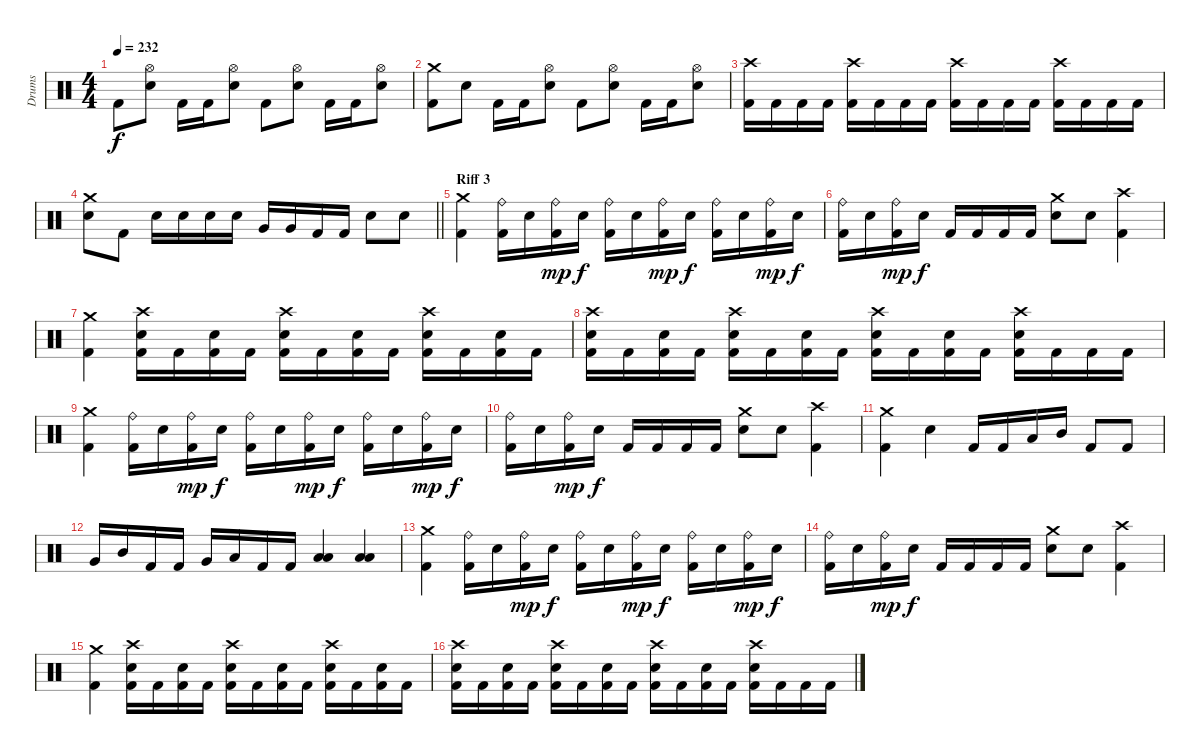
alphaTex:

\track ("Drums" "Drums") {instrument percussion}
\staff {score}
\articulation defaults
\ts (4 4)
\tempo 232
\clef neutral
\ks c "Kick (hit) 2".8{dy f}
("Hi-Hat (open)" "Electric Snare (hit)").8 "Kick (hit) 2".16 "Kick (hit) 2".16 ("Hi-Hat (open)" "Electric Snare (hit)").8 "Kick (hit) 2".8 ("Hi-Hat (open)" "Electric Snare (hit)").8 "Kick (hit) 2".16 "Kick (hit) 2".16 ("Hi-Hat (open)" "Electric Snare (hit)").8 |
("Kick (hit) 2" "Crash medium (hit)").8 "Electric Snare (hit)".8 "Kick (hit) 2".16 "Kick (hit) 2".16 ("Hi-Hat (open)" "Electric Snare (hit)").8 "Kick (hit) 2".8 ("Hi-Hat (open)" "Electric Snare (hit)").8 "Kick (hit) 2".16 "Kick (hit) 2".16 ("Hi-Hat (open)" "Electric Snare (hit)").8 |
("Crash high (hit)" "Kick (hit) 2").16 "Kick (hit) 2".16 "Kick (hit) 2".16 "Kick (hit) 2".16 ("Crash high (hit)" "Kick (hit) 2").16 "Kick (hit) 2".16 "Kick (hit) 2".16 "Kick (hit) 2".16 ("Crash high (hit)" "Kick (hit) 2").16 "Kick (hit) 2".16 "Kick (hit) 2".16 "Kick (hit) 2".16 ("Crash high (hit)" "Kick (hit) 2").16 "Kick (hit) 2".16 "Kick (hit) 2".16 "Kick (hit) 2".16 |
\barLineRight lightlight
("Electric Snare (hit)" "Crash medium (hit)").8 "Kick (hit) 2".8 "Electric Snare (hit)".16 "Electric Snare (hit)".16 "Electric Snare (hit)".16 "Electric Snare (hit)".16 "Very Low Tom (hit)".16 "Very Low Tom (hit)".16 "Kick (hit) 2".16 "Kick (hit) 2".16 "Electric Snare (hit)".8 "Electric Snare (hit)".8 |
\section ("" "Riff 3")
("Crash medium (hit)" "Kick (hit) 2").4 ("Ride (bell)" "Kick (hit) 2").16 "Electric Snare (hit)".16 ("Ride (bell)" "Kick (hit) 2").16{dy mp} "Electric Snare (hit)".16{dy f} ("Ride (bell)" "Kick (hit) 2").16 "Electric Snare (hit)".16 ("Ride (bell)" "Kick (hit) 2").16{dy mp} "Electric Snare (hit)".16{dy f} ("Ride (bell)" "Kick (hit) 2").16 "Electric Snare (hit)".16 ("Ride (bell)" "Kick (hit) 2").16{dy mp} "Electric Snare (hit)".16{dy f} |
("Ride (bell)" "Kick (hit) 2").16 "Electric Snare (hit)".16 ("Ride (bell)" "Kick (hit) 2").16{dy mp} "Electric Snare (hit)".16{dy f} "Kick (hit) 2".16 "Kick (hit) 2".16 "Kick (hit) 2".16 "Kick (hit) 2".16 ("Crash medium (hit)" "Electric Snare (hit)").8 "Electric Snare (hit)".8 ("Crash high (hit)" "Kick (hit) 2").4 |
("Crash medium (hit)" "Kick (hit) 2").4 ("Kick (hit) 2" "Electric Snare (hit)" "Crash high (hit)").16 "Kick (hit) 2".16 ("Kick (hit) 2" "Electric Snare (hit)").16 "Kick (hit) 2".16 ("Kick (hit) 2" "Electric Snare (hit)" "Crash high (hit)").16 "Kick (hit) 2".16 ("Kick (hit) 2" "Electric Snare (hit)").16 "Kick (hit) 2".16 ("Kick (hit) 2" "Electric Snare (hit)" "Crash high (hit)").16 "Kick (hit) 2".16 ("Kick (hit) 2" "Electric Snare (hit)").16 "Kick (hit) 2".16 |
("Kick (hit) 2" "Electric Snare (hit)" "Crash high (hit)").16 "Kick (hit) 2".16 ("Kick (hit) 2" "Electric Snare (hit)").16 "Kick (hit) 2".16 ("Kick (hit) 2" "Electric Snare (hit)" "Crash high (hit)").16 "Kick (hit) 2".16 ("Kick (hit) 2" "Electric Snare (hit)").16 "Kick (hit) 2".16 ("Kick (hit) 2" "Electric Snare (hit)" "Crash high (hit)").16 "Kick (hit) 2".16 ("Kick (hit) 2" "Electric Snare (hit)").16 "Kick (hit) 2".16 ("Kick (hit) 2" "Electric Snare (hit)" "Crash high (hit)").16 "Kick (hit) 2".16 "Kick (hit) 2".16 "Kick (hit) 2".16 |
("Crash medium (hit)" "Kick (hit) 2").4 ("Ride (bell)" "Kick (hit) 2").16 "Electric Snare (hit)".16 ("Ride (bell)" "Kick (hit) 2").16{dy mp} "Electric Snare (hit)".16{dy f} ("Ride (bell)" "Kick (hit) 2").16 "Electric Snare (hit)".16 ("Ride (bell)" "Kick (hit) 2").16{dy mp} "Electric Snare (hit)".16{dy f} ("Ride (bell)" "Kick (hit) 2").16 "Electric Snare (hit)".16 ("Ride (bell)" "Kick (hit) 2").16{dy mp} "Electric Snare (hit)".16{dy f} |
("Ride (bell)" "Kick (hit) 2").16 "Electric Snare (hit)".16 ("Ride (bell)" "Kick (hit) 2").16{dy mp} "Electric Snare (hit)".16{dy f} "Kick (hit) 2".16 "Kick (hit) 2".16 "Kick (hit) 2".16 "Kick (hit) 2".16 ("Crash medium (hit)" "Electric Snare (hit)").8 "Electric Snare (hit)".8 ("Crash high (hit)" "Kick (hit) 2").4 |
("Crash medium (hit)" "Kick (hit) 2").4 "Electric Snare (hit)".4 "Kick (hit) 2".16 "Kick (hit) 2".16 "Low Tom (hit)".16 "Mid Tom (hit)".16 "Kick (hit) 2".8 "Kick (hit) 2".8 |
"Very Low Tom (hit)".16 "Mid Tom (hit)".16 "Kick (hit) 2".16 "Kick (hit) 2".16 "Very Low Tom (hit)".16 "Low Tom (hit)".16 "Kick (hit) 2".16 "Kick (hit) 2".16 ("Low Tom (hit)" "Low Floor Tom (hit)").4 ("Low Tom (hit)" "Low Floor Tom (hit)").4 |
("Crash medium (hit)" "Kick (hit) 2").4 ("Ride (bell)" "Kick (hit) 2").16 "Electric Snare (hit)".16 ("Ride (bell)" "Kick (hit) 2").16{dy mp} "Electric Snare (hit)".16{dy f} ("Ride (bell)" "Kick (hit) 2").16 "Electric Snare (hit)".16 ("Ride (bell)" "Kick (hit) 2").16{dy mp} "Electric Snare (hit)".16{dy f} ("Ride (bell)" "Kick (hit) 2").16 "Electric Snare (hit)".16 ("Ride (bell)" "Kick (hit) 2").16{dy mp} "Electric Snare (hit)".16{dy f} |
("Ride (bell)" "Kick (hit) 2").16 "Electric Snare (hit)".16 ("Ride (bell)" "Kick (hit) 2").16{dy mp} "Electric Snare (hit)".16{dy f} "Kick (hit) 2".16 "Kick (hit) 2".16 "Kick (hit) 2".16 "Kick (hit) 2".16 ("Crash medium (hit)" "Electric Snare (hit)").8 "Electric Snare (hit)".8 ("Crash high (hit)" "Kick (hit) 2").4 |
("Crash medium (hit)" "Kick (hit) 2").4 ("Kick (hit) 2" "Electric Snare (hit)" "Crash high (hit)").16 "Kick (hit) 2".16 ("Kick (hit) 2" "Electric Snare (hit)").16 "Kick (hit) 2".16 ("Kick (hit) 2" "Electric Snare (hit)" "Crash high (hit)").16 "Kick (hit) 2".16 ("Kick (hit) 2" "Electric Snare (hit)").16 "Kick (hit) 2".16 ("Kick (hit) 2" "Electric Snare (hit)" "Crash high (hit)").16 "Kick (hit) 2".16 ("Kick (hit) 2" "Electric Snare (hit)").16 "Kick (hit) 2".16 |
("Kick (hit) 2" "Electric Snare (hit)" "Crash high (hit)").16 "Kick (hit) 2".16 ("Kick (hit) 2" "Electric Snare (hit)").16 "Kick (hit) 2".16 ("Kick (hit) 2" "Electric Snare (hit)" "Crash high (hit)").16 "Kick (hit) 2".16 ("Kick (hit) 2" "Electric Snare (hit)").16 "Kick (hit) 2".16 ("Kick (hit) 2" "Electric Snare (hit)" "Crash high (hit)").16 "Kick (hit) 2".16 ("Kick (hit) 2" "Electric Snare (hit)").16 "Kick (hit) 2".16 ("Kick (hit) 2" "Electric Snare (hit)" "Crash high (hit)").16 "Kick (hit) 2".16 "Kick (hit) 2".16 "Kick (hit) 2".16
